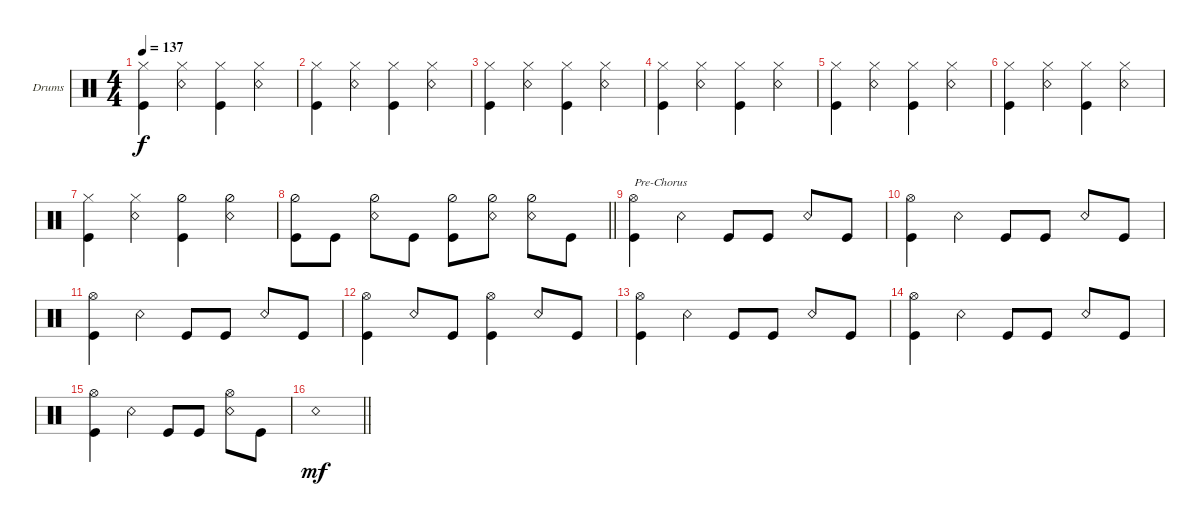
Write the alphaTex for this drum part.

\defaultSystemsLayout 4
\bracketExtendMode groupsimilarinstruments
\firstSystemTrackNameOrientation horizontal
\otherSystemsTrackNameOrientation horizontal
\track ("Drums" "Drums") {instrument percussion}
\staff {score}
\articulation defaults
\ts (4 4)
\tempo 137
\clef neutral
\scale
0.333333
\ks c
("Kick (hit)" "Hi-Hat (closed)").4{dy f} ("Snare (rim shot)" "Hi-Hat (closed)").4 ("Kick (hit)" "Hi-Hat (closed)").4 ("Snare (rim shot)" "Hi-Hat (closed)").4 |
\scale
0.333333 ("Kick (hit)" "Hi-Hat (closed)").4 ("Snare (rim shot)" "Hi-Hat (closed)").4 ("Kick (hit)" "Hi-Hat (closed)").4 ("Snare (rim shot)" "Hi-Hat (closed)").4 |
\scale
0.333333 ("Kick (hit)" "Hi-Hat (closed)").4 ("Snare (rim shot)" "Hi-Hat (closed)").4 ("Kick (hit)" "Hi-Hat (closed)").4 ("Snare (rim shot)" "Hi-Hat (closed)").4 |
\scale
0.333333 ("Kick (hit)" "Hi-Hat (closed)").4 ("Snare (rim shot)" "Hi-Hat (closed)").4 ("Kick (hit)" "Hi-Hat (closed)").4 ("Snare (rim shot)" "Hi-Hat (closed)").4 |
\scale
0.333333 ("Kick (hit)" "Hi-Hat (closed)").4 ("Snare (rim shot)" "Hi-Hat (closed)").4 ("Kick (hit)" "Hi-Hat (closed)").4 ("Snare (rim shot)" "Hi-Hat (closed)").4 |
\scale
0.333333 ("Kick (hit)" "Hi-Hat (closed)").4 ("Snare (rim shot)" "Hi-Hat (closed)").4 ("Kick (hit)" "Hi-Hat (closed)").4 ("Snare (rim shot)" "Hi-Hat (closed)").4 |
\scale
0.333333 ("Kick (hit)" "Hi-Hat (closed)").4 ("Snare (rim shot)" "Hi-Hat (closed)").4 ("Kick (hit)" "Hi-Hat (half)").4 ("Snare (rim shot)" "Hi-Hat (half)").4 |
\scale
0.333333
\barLineRight lightlight
("Kick (hit)" "Hi-Hat (half)").8 "Kick (hit)".8 ("Snare (rim shot)" "Hi-Hat (half)").8 "Kick (hit)".8 ("Kick (hit)" "Hi-Hat (half)").8 ("Snare (rim shot)" "Hi-Hat (half)").8 ("Snare (rim shot)" "Hi-Hat (half)").8 "Kick (hit)".8 |
\scale
0.333333 ("Kick (hit)" "Hi-Hat (open)").4{txt "Pre-Chorus"} "Snare (rim shot)".4 "Kick (hit)".8 "Kick (hit)".8 "Snare (rim shot)".8 "Kick (hit)".8 |
\scale
0.333333 ("Kick (hit)" "Hi-Hat (open)").4 "Snare (rim shot)".4 "Kick (hit)".8 "Kick (hit)".8 "Snare (rim shot)".8 "Kick (hit)".8 |
\scale
0.333333 ("Kick (hit)" "Hi-Hat (open)").4 "Snare (rim shot)".4 "Kick (hit)".8 "Kick (hit)".8 "Snare (rim shot)".8 "Kick (hit)".8 |
\scale
0.333333 ("Kick (hit)" "Hi-Hat (open)").4 "Snare (rim shot)".8 "Kick (hit)".8 ("Kick (hit)" "Hi-Hat (open)").4 "Snare (rim shot)".8 "Kick (hit)".8 |
\scale
0.333333 ("Kick (hit)" "Hi-Hat (open)").4 "Snare (rim shot)".4 "Kick (hit)".8 "Kick (hit)".8 "Snare (rim shot)".8 "Kick (hit)".8 |
\scale
0.333333 ("Kick (hit)" "Hi-Hat (open)").4 "Snare (rim shot)".4 "Kick (hit)".8 "Kick (hit)".8 "Snare (rim shot)".8 "Kick (hit)".8 |
\scale
0.333333 ("Kick (hit)" "Hi-Hat (open)").4 "Snare (rim shot)".4 "Kick (hit)".8 "Kick (hit)".8 ("Snare (rim shot)" "Hi-Hat (open)").8 "Kick (hit)".8 |
\scale
0.333333
\barLineRight lightlight "Snare (rim shot)".1{dy mf}
